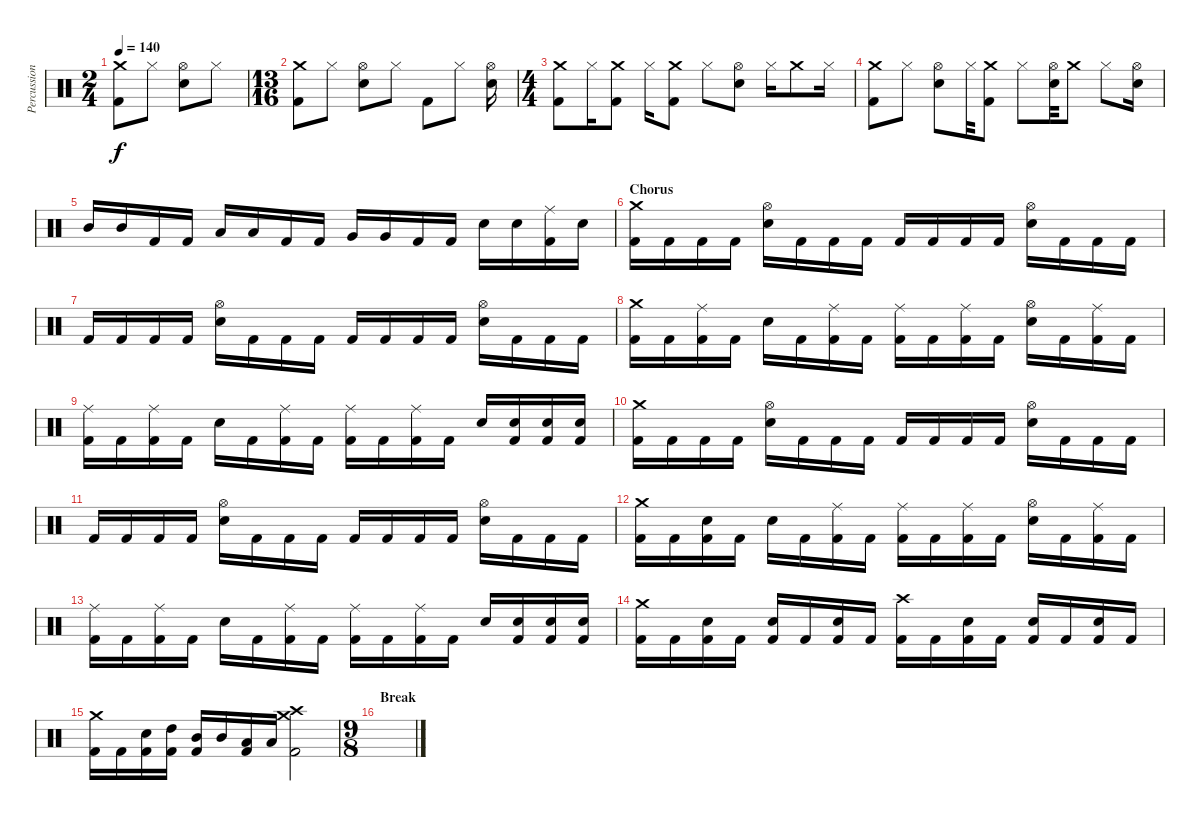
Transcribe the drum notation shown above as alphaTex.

\track ("Percussion" "Percussion") {instrument percussion}
\staff {score}
\articulation defaults
\ts (2 4)
\tempo 140
\clef neutral
\ks c
("Crash medium (hit)" "Kick (hit) 2").8{dy f} "Hi-Hat (closed)".8 ("Hi-Hat (open)" "Electric Snare (hit)").8 "Hi-Hat (closed)".8 |
\ts (13 16)
("Crash medium (hit)" "Kick (hit) 2").8 "Hi-Hat (closed)".8 ("Hi-Hat (open)" "Electric Snare (hit)").8 "Hi-Hat (closed)".8 "Kick (hit) 2".8 "Hi-Hat (closed)".8 ("Hi-Hat (open)" "Electric Snare (hit)").16 |
\ts (4 4)
("Crash medium (hit)" "Kick (hit) 2").8 "Hi-Hat (closed)".16 ("Crash medium (hit)" "Kick (hit) 2").8 "Hi-Hat (closed)".16 ("Crash medium (hit)" "Kick (hit) 2").8 "Hi-Hat (closed)".8 ("Hi-Hat (open)" "Electric Snare (hit)").8 "Hi-Hat (closed)".16 "Crash medium (hit)".8 "Hi-Hat (closed)".16 |
("Crash medium (hit)" "Kick (hit) 2").8 "Hi-Hat (closed)".8 ("Hi-Hat (open)" "Electric Snare (hit)").8 "Hi-Hat (closed)".32 ("Crash medium (hit)" "Kick (hit) 2").8 "Hi-Hat (closed)".8 ("Hi-Hat (open)" "Electric Snare (hit)").32 "Crash medium (hit)".8 "Hi-Hat (closed)".8 ("Hi-Hat (open)" "Electric Snare (hit)").16 |
"Mid Tom (hit)".16{volume 15} "Mid Tom (hit)".16 "Kick (hit) 2".16 "Kick (hit) 2".16 "Low Tom (hit)".16 "Low Tom (hit)".16 "Kick (hit) 2".16 "Kick (hit) 2".16 "Very Low Tom (hit)".16 "Very Low Tom (hit)".16 "Kick (hit) 2".16 "Kick (hit) 2".16 "Electric Snare (hit)".16 "Electric Snare (hit)".16 ("Ride (middle)" "Kick (hit) 2").16 "Electric Snare (hit)".16 |
\section ("" "Chorus")
("Crash medium (hit)" "Kick (hit) 2").16{volume 13} "Kick (hit) 2".16 "Kick (hit) 2".16 "Kick (hit) 2".16 ("Hi-Hat (open)" "Electric Snare (hit)").16 "Kick (hit) 2".16 "Kick (hit) 2".16 "Kick (hit) 2".16 "Kick (hit) 2".16 "Kick (hit) 2".16 "Kick (hit) 2".16 "Kick (hit) 2".16 ("Hi-Hat (open)" "Electric Snare (hit)").16 "Kick (hit) 2".16 "Kick (hit) 2".16 "Kick (hit) 2".16 |
"Kick (hit) 2".16 "Kick (hit) 2".16 "Kick (hit) 2".16 "Kick (hit) 2".16 ("Hi-Hat (open)" "Electric Snare (hit)").16 "Kick (hit) 2".16 "Kick (hit) 2".16 "Kick (hit) 2".16 "Kick (hit) 2".16 "Kick (hit) 2".16 "Kick (hit) 2".16 "Kick (hit) 2".16 ("Hi-Hat (open)" "Electric Snare (hit)").16 "Kick (hit) 2".16 "Kick (hit) 2".16 "Kick (hit) 2".16 |
("Crash medium (hit)" "Kick (hit) 2").16 "Kick (hit) 2".16 ("Ride (middle)" "Kick (hit) 2").16 "Kick (hit) 2".16 "Electric Snare (hit)".16 "Kick (hit) 2".16 ("Ride (middle)" "Kick (hit) 2").16 "Kick (hit) 2".16 ("Ride (middle)" "Kick (hit) 2").16 "Kick (hit) 2".16 ("Ride (middle)" "Kick (hit) 2").16 "Kick (hit) 2".16 ("Hi-Hat (open)" "Electric Snare (hit)").16 "Kick (hit) 2".16 ("Ride (middle)" "Kick (hit) 2").16 "Kick (hit) 2".16 |
("Ride (middle)" "Kick (hit) 2").16 "Kick (hit) 2".16 ("Ride (middle)" "Kick (hit) 2").16 "Kick (hit) 2".16 "Electric Snare (hit)".16 "Kick (hit) 2".16 ("Ride (middle)" "Kick (hit) 2").16 "Kick (hit) 2".16 ("Ride (middle)" "Kick (hit) 2").16 "Kick (hit) 2".16 ("Ride (middle)" "Kick (hit) 2").16 "Kick (hit) 2".16 "Electric Snare (hit)".16 ("Electric Snare (hit)" "Kick (hit) 2").16 ("Electric Snare (hit)" "Kick (hit) 2").16 ("Electric Snare (hit)" "Kick (hit) 2").16 |
("Crash medium (hit)" "Kick (hit) 2").16{volume 13} "Kick (hit) 2".16 "Kick (hit) 2".16 "Kick (hit) 2".16 ("Hi-Hat (open)" "Electric Snare (hit)").16 "Kick (hit) 2".16 "Kick (hit) 2".16 "Kick (hit) 2".16 "Kick (hit) 2".16 "Kick (hit) 2".16 "Kick (hit) 2".16 "Kick (hit) 2".16 ("Hi-Hat (open)" "Electric Snare (hit)").16 "Kick (hit) 2".16 "Kick (hit) 2".16 "Kick (hit) 2".16 |
"Kick (hit) 2".16 "Kick (hit) 2".16 "Kick (hit) 2".16 "Kick (hit) 2".16 ("Hi-Hat (open)" "Electric Snare (hit)").16 "Kick (hit) 2".16 "Kick (hit) 2".16 "Kick (hit) 2".16 "Kick (hit) 2".16 "Kick (hit) 2".16 "Kick (hit) 2".16 "Kick (hit) 2".16 ("Hi-Hat (open)" "Electric Snare (hit)").16 "Kick (hit) 2".16 "Kick (hit) 2".16 "Kick (hit) 2".16 |
("Crash medium (hit)" "Kick (hit) 2").16 "Kick (hit) 2".16 ("Electric Snare (hit)" "Kick (hit) 2").16 "Kick (hit) 2".16 "Electric Snare (hit)".16 "Kick (hit) 2".16 ("Ride (middle)" "Kick (hit) 2").16 "Kick (hit) 2".16 ("Ride (middle)" "Kick (hit) 2").16 "Kick (hit) 2".16 ("Ride (middle)" "Kick (hit) 2").16 "Kick (hit) 2".16 ("Hi-Hat (open)" "Electric Snare (hit)").16 "Kick (hit) 2".16 ("Ride (middle)" "Kick (hit) 2").16 "Kick (hit) 2".16 |
("Ride (middle)" "Kick (hit) 2").16 "Kick (hit) 2".16 ("Ride (middle)" "Kick (hit) 2").16 "Kick (hit) 2".16 "Electric Snare (hit)".16 "Kick (hit) 2".16 ("Ride (middle)" "Kick (hit) 2").16 "Kick (hit) 2".16 ("Ride (middle)" "Kick (hit) 2").16 "Kick (hit) 2".16 ("Ride (middle)" "Kick (hit) 2").16 "Kick (hit) 2".16 "Electric Snare (hit)".16 ("Electric Snare (hit)" "Kick (hit) 2").16 ("Electric Snare (hit)" "Kick (hit) 2").16 ("Electric Snare (hit)" "Kick (hit) 2").16 |
("Crash medium (hit)" "Kick (hit) 2").16 "Kick (hit) 2".16 ("Electric Snare (hit)" "Kick (hit) 2").16 "Kick (hit) 2".16 ("Electric Snare (hit)" "Kick (hit) 2").16 "Kick (hit) 2".16 ("Electric Snare (hit)" "Kick (hit) 2").16 "Kick (hit) 2".16 ("Crash high (hit)" "Kick (hit) 2").16 "Kick (hit) 2".16 ("Electric Snare (hit)" "Kick (hit) 2").16 "Kick (hit) 2".16 ("Electric Snare (hit)" "Kick (hit) 2").16 "Kick (hit) 2".16 ("Electric Snare (hit)" "Kick (hit) 2").16 "Kick (hit) 2".16 |
("Crash medium (hit)" "Kick (hit) 2").16 "Kick (hit) 2".16 ("Electric Snare (hit)" "Kick (hit) 2").16 ("High Tom (hit)" "Kick (hit) 2").16 ("Mid Tom (hit)" "Kick (hit) 2").16 "Mid Tom (hit)".16 ("Low Tom (hit)" "Kick (hit) 2").16 "Low Tom (hit)".16 ("Crash medium (hit)" "Crash high (hit)" "Kick (hit) 2").2 |
\ts (9 8)
\section ("" "Break")
